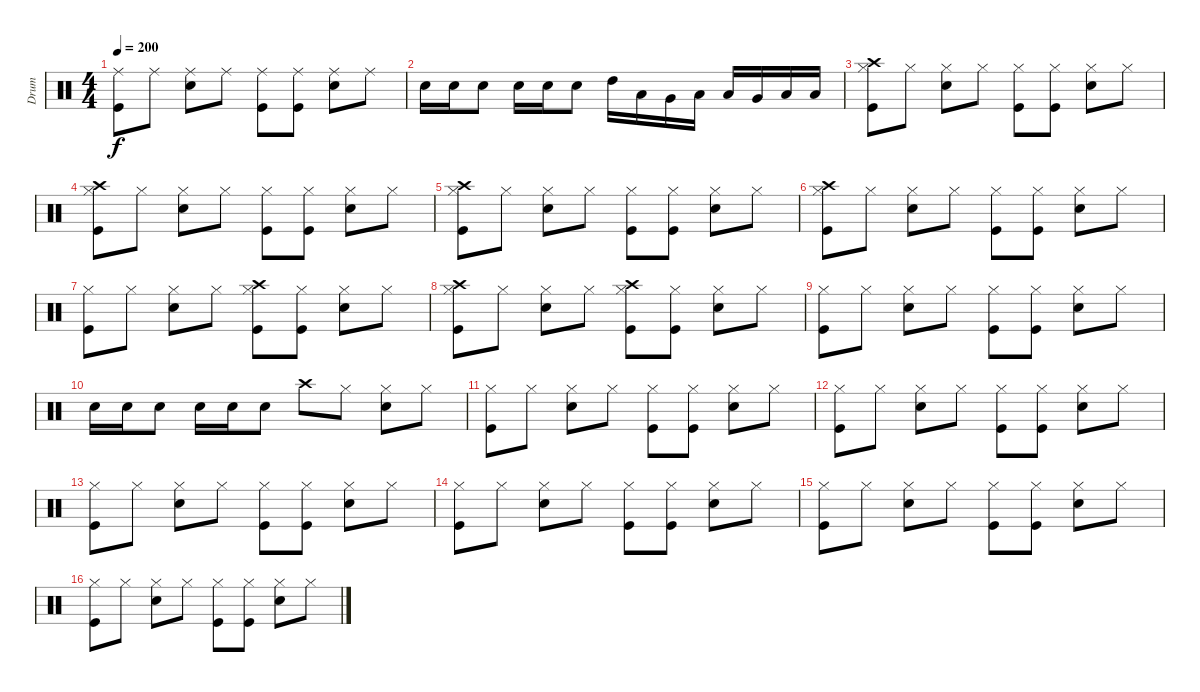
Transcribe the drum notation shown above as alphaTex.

\track ("Drum" "Drum") {instrument percussion}
\staff {score}
\articulation defaults
\ts (4 4)
\tempo 200
\clef neutral
\ks c
("Ride (middle)" "Kick (hit)").8{dy f} "Ride (middle)".8 ("Ride (middle)" "Electric Snare (hit)").8 "Ride (middle)".8 ("Ride (middle)" "Kick (hit)").8 ("Ride (middle)" "Kick (hit)").8 ("Ride (middle)" "Electric Snare (hit)").8 "Ride (middle)".8 |
"Electric Snare (hit)".16 "Electric Snare (hit)".16 "Electric Snare (hit)".8 "Electric Snare (hit)".16 "Electric Snare (hit)".16 "Electric Snare (hit)".8 "High Tom (hit)".16 "Low Tom (hit)".16 "Very Low Tom (hit)".16 "Low Floor Tom (hit)".16 "Low Tom (hit)".16 "Very Low Tom (hit)".16 "Low Floor Tom (hit)".16 "Low Floor Tom (hit)".16 |
("Crash high (hit)" "Hi-Hat (closed)" "Kick (hit)").8 "Hi-Hat (closed)".8 ("Hi-Hat (closed)" "Electric Snare (hit)").8 "Hi-Hat (closed)".8 ("Hi-Hat (closed)" "Kick (hit)").8 ("Hi-Hat (closed)" "Kick (hit)").8 ("Hi-Hat (closed)" "Electric Snare (hit)").8 "Hi-Hat (closed)".8 |
("Crash high (hit)" "Hi-Hat (closed)" "Kick (hit)").8 "Hi-Hat (closed)".8 ("Hi-Hat (closed)" "Electric Snare (hit)").8 "Hi-Hat (closed)".8 ("Hi-Hat (closed)" "Kick (hit)").8 ("Hi-Hat (closed)" "Kick (hit)").8 ("Hi-Hat (closed)" "Electric Snare (hit)").8 "Hi-Hat (closed)".8 |
("Crash high (hit)" "Hi-Hat (closed)" "Kick (hit)").8 "Hi-Hat (closed)".8 ("Hi-Hat (closed)" "Electric Snare (hit)").8 "Hi-Hat (closed)".8 ("Hi-Hat (closed)" "Kick (hit)").8 ("Hi-Hat (closed)" "Kick (hit)").8 ("Hi-Hat (closed)" "Electric Snare (hit)").8 "Hi-Hat (closed)".8 |
("Crash high (hit)" "Hi-Hat (closed)" "Kick (hit)").8 "Hi-Hat (closed)".8 ("Hi-Hat (closed)" "Electric Snare (hit)").8 "Hi-Hat (closed)".8 ("Hi-Hat (closed)" "Kick (hit)").8 ("Hi-Hat (closed)" "Kick (hit)").8 ("Hi-Hat (closed)" "Electric Snare (hit)").8 "Hi-Hat (closed)".8 |
("Hi-Hat (closed)" "Kick (hit)").8 "Hi-Hat (closed)".8 ("Hi-Hat (closed)" "Electric Snare (hit)").8 "Hi-Hat (closed)".8 ("Crash high (hit)" "Hi-Hat (closed)" "Kick (hit)").8 ("Hi-Hat (closed)" "Kick (hit)").8 ("Hi-Hat (closed)" "Electric Snare (hit)").8 "Hi-Hat (closed)".8 |
("Crash high (hit)" "Hi-Hat (closed)" "Kick (hit)").8 "Hi-Hat (closed)".8 ("Hi-Hat (closed)" "Electric Snare (hit)").8 "Hi-Hat (closed)".8 ("Crash high (hit)" "Hi-Hat (closed)" "Kick (hit)").8 ("Hi-Hat (closed)" "Kick (hit)").8 ("Hi-Hat (closed)" "Electric Snare (hit)").8 "Hi-Hat (closed)".8 |
("Hi-Hat (closed)" "Kick (hit)").8 "Hi-Hat (closed)".8 ("Hi-Hat (closed)" "Electric Snare (hit)").8 "Hi-Hat (closed)".8 ("Hi-Hat (closed)" "Kick (hit)").8 ("Hi-Hat (closed)" "Kick (hit)").8 ("Hi-Hat (closed)" "Electric Snare (hit)").8 "Hi-Hat (closed)".8 |
"Electric Snare (hit)".16 "Electric Snare (hit)".16 "Electric Snare (hit)".8 "Electric Snare (hit)".16 "Electric Snare (hit)".16 "Electric Snare (hit)".8 "Crash high (hit)".8 "Hi-Hat (closed)".8 ("Hi-Hat (closed)" "Electric Snare (hit)").8 "Hi-Hat (closed)".8 |
("Hi-Hat (closed)" "Kick (hit)").8 "Hi-Hat (closed)".8 ("Hi-Hat (closed)" "Electric Snare (hit)").8 "Hi-Hat (closed)".8 ("Hi-Hat (closed)" "Kick (hit)").8 ("Hi-Hat (closed)" "Kick (hit)").8 ("Hi-Hat (closed)" "Electric Snare (hit)").8 "Hi-Hat (closed)".8 |
("Hi-Hat (closed)" "Kick (hit)").8 "Hi-Hat (closed)".8 ("Hi-Hat (closed)" "Electric Snare (hit)").8 "Hi-Hat (closed)".8 ("Hi-Hat (closed)" "Kick (hit)").8 ("Hi-Hat (closed)" "Kick (hit)").8 ("Hi-Hat (closed)" "Electric Snare (hit)").8 "Hi-Hat (closed)".8 |
("Hi-Hat (closed)" "Kick (hit)").8 "Hi-Hat (closed)".8 ("Hi-Hat (closed)" "Electric Snare (hit)").8 "Hi-Hat (closed)".8 ("Hi-Hat (closed)" "Kick (hit)").8 ("Hi-Hat (closed)" "Kick (hit)").8 ("Hi-Hat (closed)" "Electric Snare (hit)").8 "Hi-Hat (closed)".8 |
("Hi-Hat (closed)" "Kick (hit)").8 "Hi-Hat (closed)".8 ("Hi-Hat (closed)" "Electric Snare (hit)").8 "Hi-Hat (closed)".8 ("Hi-Hat (closed)" "Kick (hit)").8 ("Hi-Hat (closed)" "Kick (hit)").8 ("Hi-Hat (closed)" "Electric Snare (hit)").8 "Hi-Hat (closed)".8 |
("Hi-Hat (closed)" "Kick (hit)").8 "Hi-Hat (closed)".8 ("Hi-Hat (closed)" "Electric Snare (hit)").8 "Hi-Hat (closed)".8 ("Hi-Hat (closed)" "Kick (hit)").8 ("Hi-Hat (closed)" "Kick (hit)").8 ("Hi-Hat (closed)" "Electric Snare (hit)").8 "Hi-Hat (closed)".8 |
("Hi-Hat (closed)" "Kick (hit)").8 "Hi-Hat (closed)".8 ("Hi-Hat (closed)" "Electric Snare (hit)").8 "Hi-Hat (closed)".8 ("Hi-Hat (closed)" "Kick (hit)").8 ("Hi-Hat (closed)" "Kick (hit)").8 ("Hi-Hat (closed)" "Electric Snare (hit)").8 "Hi-Hat (closed)".8
